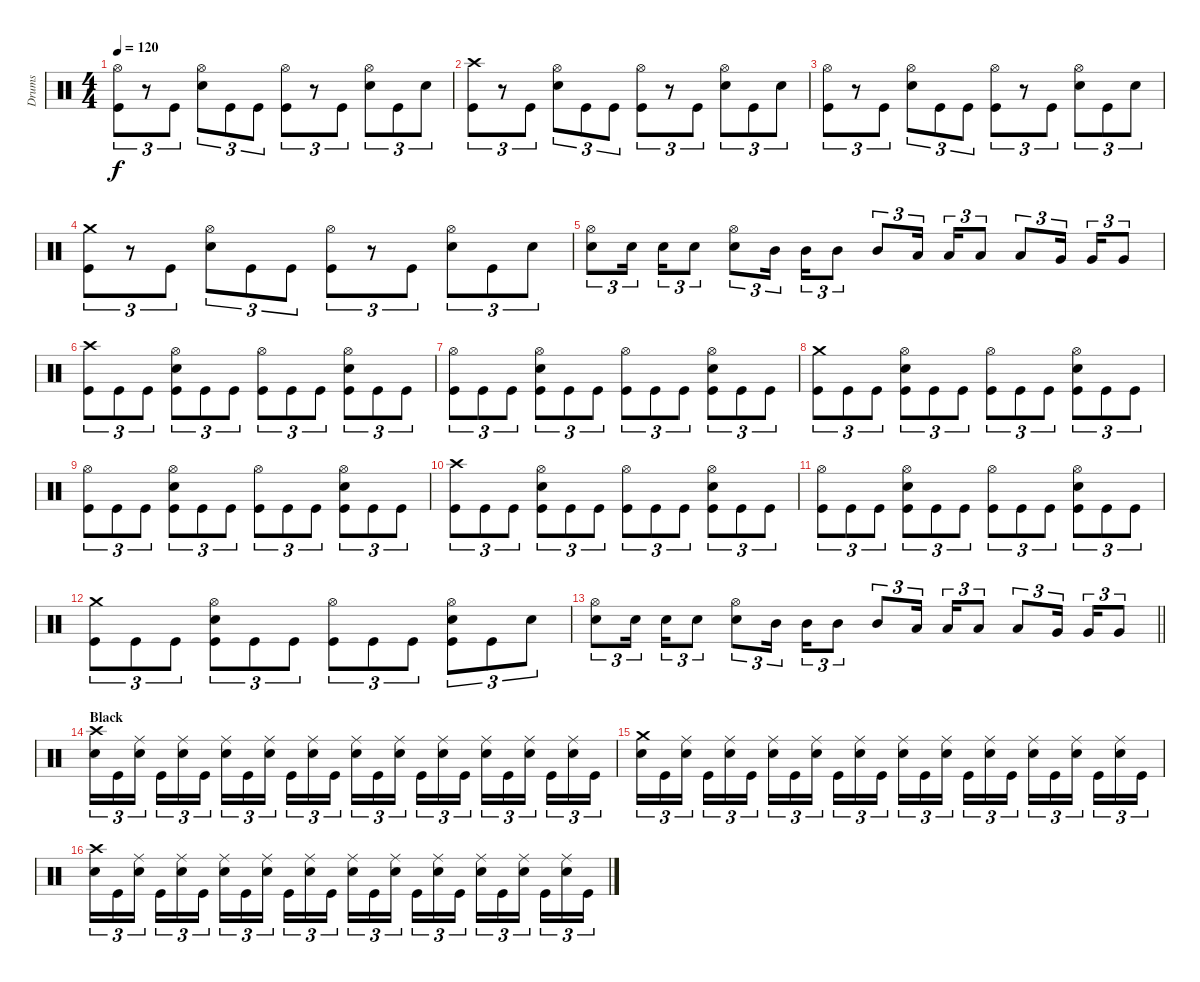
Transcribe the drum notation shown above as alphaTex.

\track ("Drums" "Drums") {instrument percussion}
\staff {score}
\articulation defaults
\ts (4 4)
\tempo 120
\clef neutral
\ks c
("Hi-Hat (open)" "Kick (hit)").8{tu (3 2) dy f} r.8{tu (3 2)} "Kick (hit)".8{tu (3 2)} ("Hi-Hat (open)" "Electric Snare (hit)").8{tu (3 2)} "Kick (hit)".8{tu (3 2)} "Kick (hit)".8{tu (3 2)} ("Hi-Hat (open)" "Kick (hit)").8{tu (3 2)} r.8{tu (3 2)} "Kick (hit)".8{tu (3 2)} ("Hi-Hat (open)" "Electric Snare (hit)").8{tu (3 2)} "Kick (hit)".8{tu (3 2)} "Electric Snare (hit)".8{tu (3 2)} |
("Crash high (hit)" "Kick (hit)").8{tu (3 2)} r.8{tu (3 2)} "Kick (hit)".8{tu (3 2)} ("Hi-Hat (open)" "Electric Snare (hit)").8{tu (3 2)} "Kick (hit)".8{tu (3 2)} "Kick (hit)".8{tu (3 2)} ("Hi-Hat (open)" "Kick (hit)").8{tu (3 2)} r.8{tu (3 2)} "Kick (hit)".8{tu (3 2)} ("Hi-Hat (open)" "Electric Snare (hit)").8{tu (3 2)} "Kick (hit)".8{tu (3 2)} "Electric Snare (hit)".8{tu (3 2)} |
("Hi-Hat (open)" "Kick (hit)").8{tu (3 2)} r.8{tu (3 2)} "Kick (hit)".8{tu (3 2)} ("Hi-Hat (open)" "Electric Snare (hit)").8{tu (3 2)} "Kick (hit)".8{tu (3 2)} "Kick (hit)".8{tu (3 2)} ("Hi-Hat (open)" "Kick (hit)").8{tu (3 2)} r.8{tu (3 2)} "Kick (hit)".8{tu (3 2)} ("Hi-Hat (open)" "Electric Snare (hit)").8{tu (3 2)} "Kick (hit)".8{tu (3 2)} "Electric Snare (hit)".8{tu (3 2)} |
("Crash medium (hit)" "Kick (hit)").8{tu (3 2)} r.8{tu (3 2)} "Kick (hit)".8{tu (3 2)} ("Hi-Hat (open)" "Electric Snare (hit)").8{tu (3 2)} "Kick (hit)".8{tu (3 2)} "Kick (hit)".8{tu (3 2)} ("Hi-Hat (open)" "Kick (hit)").8{tu (3 2)} r.8{tu (3 2)} "Kick (hit)".8{tu (3 2)} ("Hi-Hat (open)" "Electric Snare (hit)").8{tu (3 2)} "Kick (hit)".8{tu (3 2)} "Electric Snare (hit)".8{tu (3 2)} |
("Hi-Hat (open)" "Electric Snare (hit)").8{tu (3 2)} "Electric Snare (hit)".16{tu (3 2)} "Electric Snare (hit)".16{tu (3 2)} "Electric Snare (hit)".8{tu (3 2)} ("Hi-Hat (open)" "Electric Snare (hit)").8{tu (3 2)} "Mid Tom (hit)".16{tu (3 2)} "Mid Tom (hit)".16{tu (3 2)} "Mid Tom (hit)".8{tu (3 2)} "Mid Tom (hit)".8{tu (3 2)} "Low Tom (hit)".16{tu (3 2)} "Low Tom (hit)".16{tu (3 2)} "Low Tom (hit)".8{tu (3 2)} "Low Tom (hit)".8{tu (3 2)} "Very Low Tom (hit)".16{tu (3 2)} "Very Low Tom (hit)".16{tu (3 2)} "Very Low Tom (hit)".8{tu (3 2)} |
("Crash high (hit)" "Kick (hit)").8{tu (3 2)} "Kick (hit)".8{tu (3 2)} "Kick (hit)".8{tu (3 2)} ("Hi-Hat (open)" "Electric Snare (hit)" "Kick (hit)").8{tu (3 2)} "Kick (hit)".8{tu (3 2)} "Kick (hit)".8{tu (3 2)} ("Hi-Hat (open)" "Kick (hit)").8{tu (3 2)} "Kick (hit)".8{tu (3 2)} "Kick (hit)".8{tu (3 2)} ("Hi-Hat (open)" "Electric Snare (hit)" "Kick (hit)").8{tu (3 2)} "Kick (hit)".8{tu (3 2)} "Kick (hit)".8{tu (3 2)} |
("Hi-Hat (open)" "Kick (hit)").8{tu (3 2)} "Kick (hit)".8{tu (3 2)} "Kick (hit)".8{tu (3 2)} ("Hi-Hat (open)" "Electric Snare (hit)" "Kick (hit)").8{tu (3 2)} "Kick (hit)".8{tu (3 2)} "Kick (hit)".8{tu (3 2)} ("Hi-Hat (open)" "Kick (hit)").8{tu (3 2)} "Kick (hit)".8{tu (3 2)} "Kick (hit)".8{tu (3 2)} ("Hi-Hat (open)" "Electric Snare (hit)" "Kick (hit)").8{tu (3 2)} "Kick (hit)".8{tu (3 2)} "Kick (hit)".8{tu (3 2)} |
("Crash medium (hit)" "Kick (hit)").8{tu (3 2)} "Kick (hit)".8{tu (3 2)} "Kick (hit)".8{tu (3 2)} ("Hi-Hat (open)" "Electric Snare (hit)" "Kick (hit)").8{tu (3 2)} "Kick (hit)".8{tu (3 2)} "Kick (hit)".8{tu (3 2)} ("Hi-Hat (open)" "Kick (hit)").8{tu (3 2)} "Kick (hit)".8{tu (3 2)} "Kick (hit)".8{tu (3 2)} ("Hi-Hat (open)" "Electric Snare (hit)" "Kick (hit)").8{tu (3 2)} "Kick (hit)".8{tu (3 2)} "Kick (hit)".8{tu (3 2)} |
("Hi-Hat (open)" "Kick (hit)").8{tu (3 2)} "Kick (hit)".8{tu (3 2)} "Kick (hit)".8{tu (3 2)} ("Hi-Hat (open)" "Electric Snare (hit)" "Kick (hit)").8{tu (3 2)} "Kick (hit)".8{tu (3 2)} "Kick (hit)".8{tu (3 2)} ("Hi-Hat (open)" "Kick (hit)").8{tu (3 2)} "Kick (hit)".8{tu (3 2)} "Kick (hit)".8{tu (3 2)} ("Hi-Hat (open)" "Electric Snare (hit)" "Kick (hit)").8{tu (3 2)} "Kick (hit)".8{tu (3 2)} "Kick (hit)".8{tu (3 2)} |
("Crash high (hit)" "Kick (hit)").8{tu (3 2)} "Kick (hit)".8{tu (3 2)} "Kick (hit)".8{tu (3 2)} ("Hi-Hat (open)" "Electric Snare (hit)" "Kick (hit)").8{tu (3 2)} "Kick (hit)".8{tu (3 2)} "Kick (hit)".8{tu (3 2)} ("Hi-Hat (open)" "Kick (hit)").8{tu (3 2)} "Kick (hit)".8{tu (3 2)} "Kick (hit)".8{tu (3 2)} ("Hi-Hat (open)" "Electric Snare (hit)" "Kick (hit)").8{tu (3 2)} "Kick (hit)".8{tu (3 2)} "Kick (hit)".8{tu (3 2)} |
("Hi-Hat (open)" "Kick (hit)").8{tu (3 2)} "Kick (hit)".8{tu (3 2)} "Kick (hit)".8{tu (3 2)} ("Hi-Hat (open)" "Electric Snare (hit)" "Kick (hit)").8{tu (3 2)} "Kick (hit)".8{tu (3 2)} "Kick (hit)".8{tu (3 2)} ("Hi-Hat (open)" "Kick (hit)").8{tu (3 2)} "Kick (hit)".8{tu (3 2)} "Kick (hit)".8{tu (3 2)} ("Hi-Hat (open)" "Electric Snare (hit)" "Kick (hit)").8{tu (3 2)} "Kick (hit)".8{tu (3 2)} "Kick (hit)".8{tu (3 2)} |
("Crash medium (hit)" "Kick (hit)").8{tu (3 2)} "Kick (hit)".8{tu (3 2)} "Kick (hit)".8{tu (3 2)} ("Hi-Hat (open)" "Electric Snare (hit)" "Kick (hit)").8{tu (3 2)} "Kick (hit)".8{tu (3 2)} "Kick (hit)".8{tu (3 2)} ("Hi-Hat (open)" "Kick (hit)").8{tu (3 2)} "Kick (hit)".8{tu (3 2)} "Kick (hit)".8{tu (3 2)} ("Hi-Hat (open)" "Electric Snare (hit)" "Kick (hit)").8{tu (3 2)} "Kick (hit)".8{tu (3 2)} "Electric Snare (hit)".8{tu (3 2)} |
\barLineRight lightlight
("Hi-Hat (open)" "Electric Snare (hit)").8{tu (3 2)} "Electric Snare (hit)".16{tu (3 2)} "Electric Snare (hit)".16{tu (3 2)} "Electric Snare (hit)".8{tu (3 2)} ("Hi-Hat (open)" "Electric Snare (hit)").8{tu (3 2)} "Mid Tom (hit)".16{tu (3 2)} "Mid Tom (hit)".16{tu (3 2)} "Mid Tom (hit)".8{tu (3 2)} "Mid Tom (hit)".8{tu (3 2)} "Low Tom (hit)".16{tu (3 2)} "Low Tom (hit)".16{tu (3 2)} "Low Tom (hit)".8{tu (3 2)} "Low Tom (hit)".8{tu (3 2)} "Very Low Tom (hit)".16{tu (3 2)} "Very Low Tom (hit)".16{tu (3 2)} "Very Low Tom (hit)".8{tu (3 2)} |
\section ("" "Black")
("Crash high (hit)" "Electric Snare (hit)").16{tu (3 2)} "Kick (hit)".16{tu (3 2)} ("Ride (middle)" "Electric Snare (hit)").16{tu (3 2)} "Kick (hit)".16{tu (3 2)} ("Ride (middle)" "Electric Snare (hit)").16{tu (3 2)} "Kick (hit)".16{tu (3 2)} ("Ride (middle)" "Electric Snare (hit)").16{tu (3 2)} "Kick (hit)".16{tu (3 2)} ("Ride (middle)" "Electric Snare (hit)").16{tu (3 2)} "Kick (hit)".16{tu (3 2)} ("Ride (middle)" "Electric Snare (hit)").16{tu (3 2)} "Kick (hit)".16{tu (3 2)} ("Ride (middle)" "Electric Snare (hit)").16{tu (3 2)} "Kick (hit)".16{tu (3 2)} ("Ride (middle)" "Electric Snare (hit)").16{tu (3 2)} "Kick (hit)".16{tu (3 2)} ("Ride (middle)" "Electric Snare (hit)").16{tu (3 2)} "Kick (hit)".16{tu (3 2)} ("Ride (middle)" "Electric Snare (hit)").16{tu (3 2)} "Kick (hit)".16{tu (3 2)} ("Ride (middle)" "Electric Snare (hit)").16{tu (3 2)} "Kick (hit)".16{tu (3 2)} ("Ride (middle)" "Electric Snare (hit)").16{tu (3 2)} "Kick (hit)".16{tu (3 2)} |
("Crash medium (hit)" "Electric Snare (hit)").16{tu (3 2)} "Kick (hit)".16{tu (3 2)} ("Ride (middle)" "Electric Snare (hit)").16{tu (3 2)} "Kick (hit)".16{tu (3 2)} ("Ride (middle)" "Electric Snare (hit)").16{tu (3 2)} "Kick (hit)".16{tu (3 2)} ("Ride (middle)" "Electric Snare (hit)").16{tu (3 2)} "Kick (hit)".16{tu (3 2)} ("Ride (middle)" "Electric Snare (hit)").16{tu (3 2)} "Kick (hit)".16{tu (3 2)} ("Ride (middle)" "Electric Snare (hit)").16{tu (3 2)} "Kick (hit)".16{tu (3 2)} ("Ride (middle)" "Electric Snare (hit)").16{tu (3 2)} "Kick (hit)".16{tu (3 2)} ("Ride (middle)" "Electric Snare (hit)").16{tu (3 2)} "Kick (hit)".16{tu (3 2)} ("Ride (middle)" "Electric Snare (hit)").16{tu (3 2)} "Kick (hit)".16{tu (3 2)} ("Ride (middle)" "Electric Snare (hit)").16{tu (3 2)} "Kick (hit)".16{tu (3 2)} ("Ride (middle)" "Electric Snare (hit)").16{tu (3 2)} "Kick (hit)".16{tu (3 2)} ("Ride (middle)" "Electric Snare (hit)").16{tu (3 2)} "Kick (hit)".16{tu (3 2)} |
("Crash high (hit)" "Electric Snare (hit)").16{tu (3 2)} "Kick (hit)".16{tu (3 2)} ("Ride (middle)" "Electric Snare (hit)").16{tu (3 2)} "Kick (hit)".16{tu (3 2)} ("Ride (middle)" "Electric Snare (hit)").16{tu (3 2)} "Kick (hit)".16{tu (3 2)} ("Ride (middle)" "Electric Snare (hit)").16{tu (3 2)} "Kick (hit)".16{tu (3 2)} ("Ride (middle)" "Electric Snare (hit)").16{tu (3 2)} "Kick (hit)".16{tu (3 2)} ("Ride (middle)" "Electric Snare (hit)").16{tu (3 2)} "Kick (hit)".16{tu (3 2)} ("Ride (middle)" "Electric Snare (hit)").16{tu (3 2)} "Kick (hit)".16{tu (3 2)} ("Ride (middle)" "Electric Snare (hit)").16{tu (3 2)} "Kick (hit)".16{tu (3 2)} ("Ride (middle)" "Electric Snare (hit)").16{tu (3 2)} "Kick (hit)".16{tu (3 2)} ("Ride (middle)" "Electric Snare (hit)").16{tu (3 2)} "Kick (hit)".16{tu (3 2)} ("Ride (middle)" "Electric Snare (hit)").16{tu (3 2)} "Kick (hit)".16{tu (3 2)} ("Ride (middle)" "Electric Snare (hit)").16{tu (3 2)} "Kick (hit)".16{tu (3 2)}
